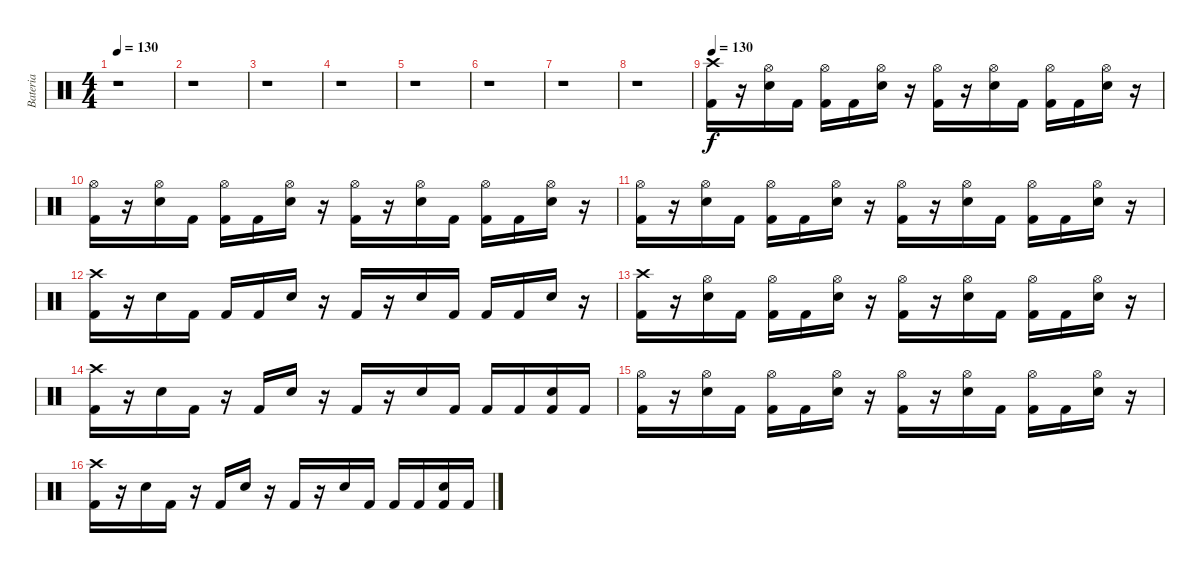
\track ("Bateria" "Bateria") {instrument percussion}
\staff {score}
\articulation defaults
\ts (4 4)
\tempo 130
\clef neutral
\ks c
r.1{dy f} |
r.1 |
r.1 |
r.1 |
r.1 |
r.1 |
r.1 |
r.1 |
\tempo 130
("Crash high (hit)" "Kick (hit) 2").16 r.16 ("Hi-Hat (open)" "Snare (hit) 2").16 "Kick (hit) 2".16 ("Hi-Hat (open)" "Kick (hit) 2").16 "Kick (hit) 2".16 ("Hi-Hat (open)" "Snare (hit) 2").16 r.16 ("Hi-Hat (open)" "Kick (hit) 2").16 r.16 ("Hi-Hat (open)" "Snare (hit) 2").16 "Kick (hit) 2".16 ("Hi-Hat (open)" "Kick (hit) 2").16 "Kick (hit) 2".16 ("Hi-Hat (open)" "Snare (hit) 2").16 r.16 |
("Hi-Hat (open)" "Kick (hit) 2").16 r.16 ("Hi-Hat (open)" "Snare (hit) 2").16 "Kick (hit) 2".16 ("Hi-Hat (open)" "Kick (hit) 2").16 "Kick (hit) 2".16 ("Hi-Hat (open)" "Snare (hit) 2").16 r.16 ("Hi-Hat (open)" "Kick (hit) 2").16 r.16 ("Hi-Hat (open)" "Snare (hit) 2").16 "Kick (hit) 2".16 ("Hi-Hat (open)" "Kick (hit) 2").16 "Kick (hit) 2".16 ("Hi-Hat (open)" "Snare (hit) 2").16 r.16 |
("Hi-Hat (open)" "Kick (hit) 2").16 r.16 ("Hi-Hat (open)" "Snare (hit) 2").16 "Kick (hit) 2".16 ("Hi-Hat (open)" "Kick (hit) 2").16 "Kick (hit) 2".16 ("Hi-Hat (open)" "Snare (hit) 2").16 r.16 ("Hi-Hat (open)" "Kick (hit) 2").16 r.16 ("Hi-Hat (open)" "Snare (hit) 2").16 "Kick (hit) 2".16 ("Hi-Hat (open)" "Kick (hit) 2").16 "Kick (hit) 2".16 ("Hi-Hat (open)" "Snare (hit) 2").16 r.16 |
("Crash high (hit)" "Kick (hit) 2").16 r.16 "Snare (hit) 2".16 "Kick (hit) 2".16 "Kick (hit) 2".16 "Kick (hit) 2".16 "Snare (hit) 2".16 r.16 "Kick (hit) 2".16 r.16 "Snare (hit) 2".16 "Kick (hit) 2".16 "Kick (hit) 2".16 "Kick (hit) 2".16 "Snare (hit) 2".16 r.16 |
("Crash high (hit)" "Kick (hit) 2").16 r.16 ("Hi-Hat (open)" "Snare (hit) 2").16 "Kick (hit) 2".16 ("Hi-Hat (open)" "Kick (hit) 2").16 "Kick (hit) 2".16 ("Hi-Hat (open)" "Snare (hit) 2").16 r.16 ("Hi-Hat (open)" "Kick (hit) 2").16 r.16 ("Hi-Hat (open)" "Snare (hit) 2").16 "Kick (hit) 2".16 ("Hi-Hat (open)" "Kick (hit) 2").16 "Kick (hit) 2".16 ("Hi-Hat (open)" "Snare (hit) 2").16 r.16 |
("Crash high (hit)" "Kick (hit) 2").16 r.16 "Snare (hit) 2".16 "Kick (hit) 2".16 r.16 "Kick (hit) 2".16 "Snare (hit) 2".16 r.16 "Kick (hit) 2".16 r.16 "Snare (hit) 2".16 "Kick (hit) 2".16 "Kick (hit) 2".16 "Kick (hit) 2".16 ("Snare (hit) 2" "Kick (hit) 2").16 "Kick (hit) 2".16 |
("Hi-Hat (open)" "Kick (hit) 2").16 r.16 ("Hi-Hat (open)" "Snare (hit) 2").16 "Kick (hit) 2".16 ("Hi-Hat (open)" "Kick (hit) 2").16 "Kick (hit) 2".16 ("Hi-Hat (open)" "Snare (hit) 2").16 r.16 ("Hi-Hat (open)" "Kick (hit) 2").16 r.16 ("Hi-Hat (open)" "Snare (hit) 2").16 "Kick (hit) 2".16 ("Hi-Hat (open)" "Kick (hit) 2").16 "Kick (hit) 2".16 ("Hi-Hat (open)" "Snare (hit) 2").16 r.16 |
("Crash high (hit)" "Kick (hit) 2").16 r.16 "Snare (hit) 2".16 "Kick (hit) 2".16 r.16 "Kick (hit) 2".16 "Snare (hit) 2".16 r.16 "Kick (hit) 2".16 r.16 "Snare (hit) 2".16 "Kick (hit) 2".16 "Kick (hit) 2".16 "Kick (hit) 2".16 ("Snare (hit) 2" "Kick (hit) 2").16 "Kick (hit) 2".16
